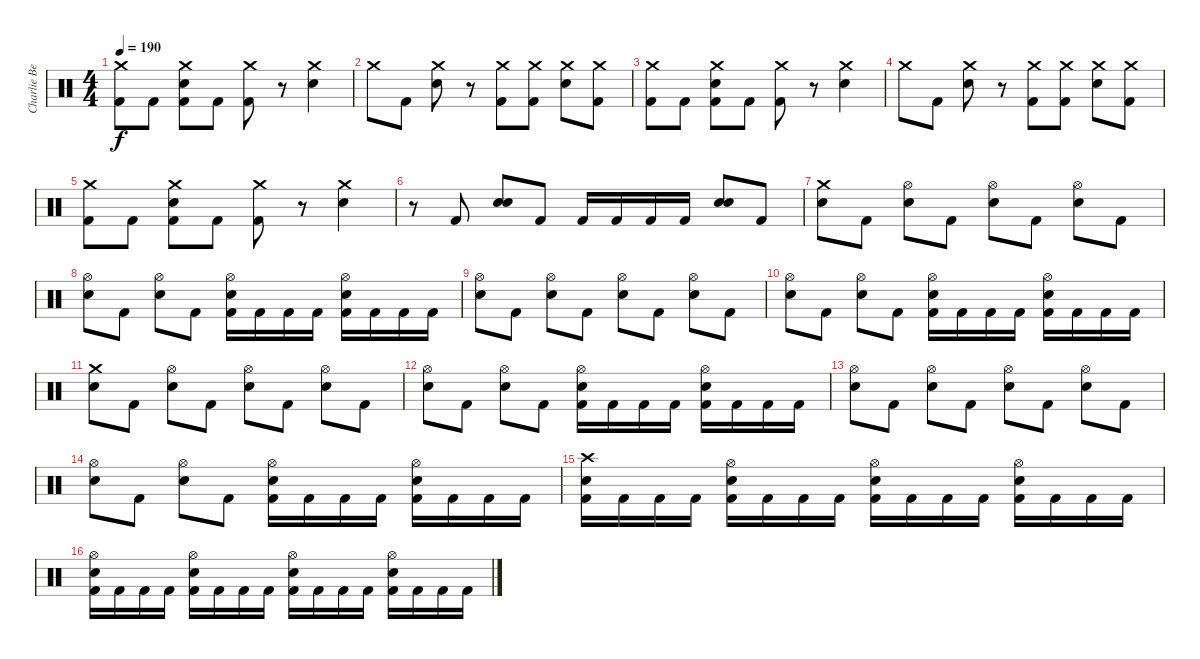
\track ("Charlie Benante" "Charlie Be") {instrument percussion}
\staff {score}
\articulation defaults
\ts (4 4)
\tempo 190
\clef neutral
\ks c
("Crash medium (hit)" "Kick (hit) 2").8{dy f} "Kick (hit) 2".8 ("Snare (hit) 2" "Crash medium (hit)" "Kick (hit) 2").8 "Kick (hit) 2".8 ("Crash medium (hit)" "Kick (hit) 2").8 r.8 ("Snare (hit) 2" "Crash medium (hit)").4 |
"Crash medium (hit)".8 "Kick (hit) 2".8 ("Snare (hit) 2" "Crash medium (hit)").8 r.8 ("Crash medium (hit)" "Kick (hit) 2").8 ("Crash medium (hit)" "Kick (hit) 2").8 ("Snare (hit) 2" "Crash medium (hit)").8 ("Crash medium (hit)" "Kick (hit) 2").8 |
("Crash medium (hit)" "Kick (hit) 2").8 "Kick (hit) 2".8 ("Snare (hit) 2" "Crash medium (hit)" "Kick (hit) 2").8 "Kick (hit) 2".8 ("Crash medium (hit)" "Kick (hit) 2").8 r.8 ("Snare (hit) 2" "Crash medium (hit)").4 |
"Crash medium (hit)".8 "Kick (hit) 2".8 ("Snare (hit) 2" "Crash medium (hit)").8 r.8 ("Crash medium (hit)" "Kick (hit) 2").8 ("Crash medium (hit)" "Kick (hit) 2").8 ("Snare (hit) 2" "Crash medium (hit)").8 ("Crash medium (hit)" "Kick (hit) 2").8 |
("Crash medium (hit)" "Kick (hit) 2").8 "Kick (hit) 2".8 ("Snare (hit) 2" "Crash medium (hit)" "Kick (hit) 2").8 "Kick (hit) 2".8 ("Crash medium (hit)" "Kick (hit) 2").8 r.8 ("Snare (hit) 2" "Crash medium (hit)").4 |
r.8 "Kick (hit) 2".8 ("Electric Snare (hit)" "Snare (hit) 2").8 "Kick (hit) 2".8 "Kick (hit) 2".16 "Kick (hit) 2".16 "Kick (hit) 2".16 "Kick (hit) 2".16 ("Electric Snare (hit)" "Snare (hit) 2").8 "Kick (hit) 2".8 |
("Snare (hit) 2" "Crash medium (hit)").8 "Kick (hit) 2".8 ("Snare (hit) 2" "Hi-Hat (open)").8 "Kick (hit) 2".8 ("Snare (hit) 2" "Hi-Hat (open)").8 "Kick (hit) 2".8 ("Snare (hit) 2" "Hi-Hat (open)").8 "Kick (hit) 2".8 |
("Snare (hit) 2" "Hi-Hat (open)").8 "Kick (hit) 2".8 ("Snare (hit) 2" "Hi-Hat (open)").8 "Kick (hit) 2".8 ("Snare (hit) 2" "Hi-Hat (open)" "Kick (hit) 2").16 "Kick (hit) 2".16 "Kick (hit) 2".16 "Kick (hit) 2".16 ("Snare (hit) 2" "Hi-Hat (open)" "Kick (hit) 2").16 "Kick (hit) 2".16 "Kick (hit) 2".16 "Kick (hit) 2".16 |
("Snare (hit) 2" "Hi-Hat (open)").8 "Kick (hit) 2".8 ("Snare (hit) 2" "Hi-Hat (open)").8 "Kick (hit) 2".8 ("Snare (hit) 2" "Hi-Hat (open)").8 "Kick (hit) 2".8 ("Snare (hit) 2" "Hi-Hat (open)").8 "Kick (hit) 2".8 |
("Snare (hit) 2" "Hi-Hat (open)").8 "Kick (hit) 2".8 ("Snare (hit) 2" "Hi-Hat (open)").8 "Kick (hit) 2".8 ("Snare (hit) 2" "Hi-Hat (open)" "Kick (hit) 2").16 "Kick (hit) 2".16 "Kick (hit) 2".16 "Kick (hit) 2".16 ("Snare (hit) 2" "Hi-Hat (open)" "Kick (hit) 2").16 "Kick (hit) 2".16 "Kick (hit) 2".16 "Kick (hit) 2".16 |
("Snare (hit) 2" "Crash medium (hit)").8 "Kick (hit) 2".8 ("Snare (hit) 2" "Hi-Hat (open)").8 "Kick (hit) 2".8 ("Snare (hit) 2" "Hi-Hat (open)").8 "Kick (hit) 2".8 ("Snare (hit) 2" "Hi-Hat (open)").8 "Kick (hit) 2".8 |
("Snare (hit) 2" "Hi-Hat (open)").8 "Kick (hit) 2".8 ("Snare (hit) 2" "Hi-Hat (open)").8 "Kick (hit) 2".8 ("Snare (hit) 2" "Hi-Hat (open)" "Kick (hit) 2").16 "Kick (hit) 2".16 "Kick (hit) 2".16 "Kick (hit) 2".16 ("Snare (hit) 2" "Hi-Hat (open)" "Kick (hit) 2").16 "Kick (hit) 2".16 "Kick (hit) 2".16 "Kick (hit) 2".16 |
("Snare (hit) 2" "Hi-Hat (open)").8 "Kick (hit) 2".8 ("Snare (hit) 2" "Hi-Hat (open)").8 "Kick (hit) 2".8 ("Snare (hit) 2" "Hi-Hat (open)").8 "Kick (hit) 2".8 ("Snare (hit) 2" "Hi-Hat (open)").8 "Kick (hit) 2".8 |
("Snare (hit) 2" "Hi-Hat (open)").8 "Kick (hit) 2".8 ("Snare (hit) 2" "Hi-Hat (open)").8 "Kick (hit) 2".8 ("Snare (hit) 2" "Hi-Hat (open)" "Kick (hit) 2").16 "Kick (hit) 2".16 "Kick (hit) 2".16 "Kick (hit) 2".16 ("Snare (hit) 2" "Hi-Hat (open)" "Kick (hit) 2").16 "Kick (hit) 2".16 "Kick (hit) 2".16 "Kick (hit) 2".16 |
("Snare (hit) 2" "Crash high (hit)" "Kick (hit) 2").16 "Kick (hit) 2".16 "Kick (hit) 2".16 "Kick (hit) 2".16 ("Snare (hit) 2" "Hi-Hat (open)" "Kick (hit) 2").16 "Kick (hit) 2".16 "Kick (hit) 2".16 "Kick (hit) 2".16 ("Snare (hit) 2" "Hi-Hat (open)" "Kick (hit) 2").16 "Kick (hit) 2".16 "Kick (hit) 2".16 "Kick (hit) 2".16 ("Snare (hit) 2" "Hi-Hat (open)" "Kick (hit) 2").16 "Kick (hit) 2".16 "Kick (hit) 2".16 "Kick (hit) 2".16 |
("Snare (hit) 2" "Hi-Hat (open)" "Kick (hit) 2").16 "Kick (hit) 2".16 "Kick (hit) 2".16 "Kick (hit) 2".16 ("Snare (hit) 2" "Hi-Hat (open)" "Kick (hit) 2").16 "Kick (hit) 2".16 "Kick (hit) 2".16 "Kick (hit) 2".16 ("Snare (hit) 2" "Hi-Hat (open)" "Kick (hit) 2").16 "Kick (hit) 2".16 "Kick (hit) 2".16 "Kick (hit) 2".16 ("Snare (hit) 2" "Hi-Hat (open)" "Kick (hit) 2").16 "Kick (hit) 2".16 "Kick (hit) 2".16 "Kick (hit) 2".16
